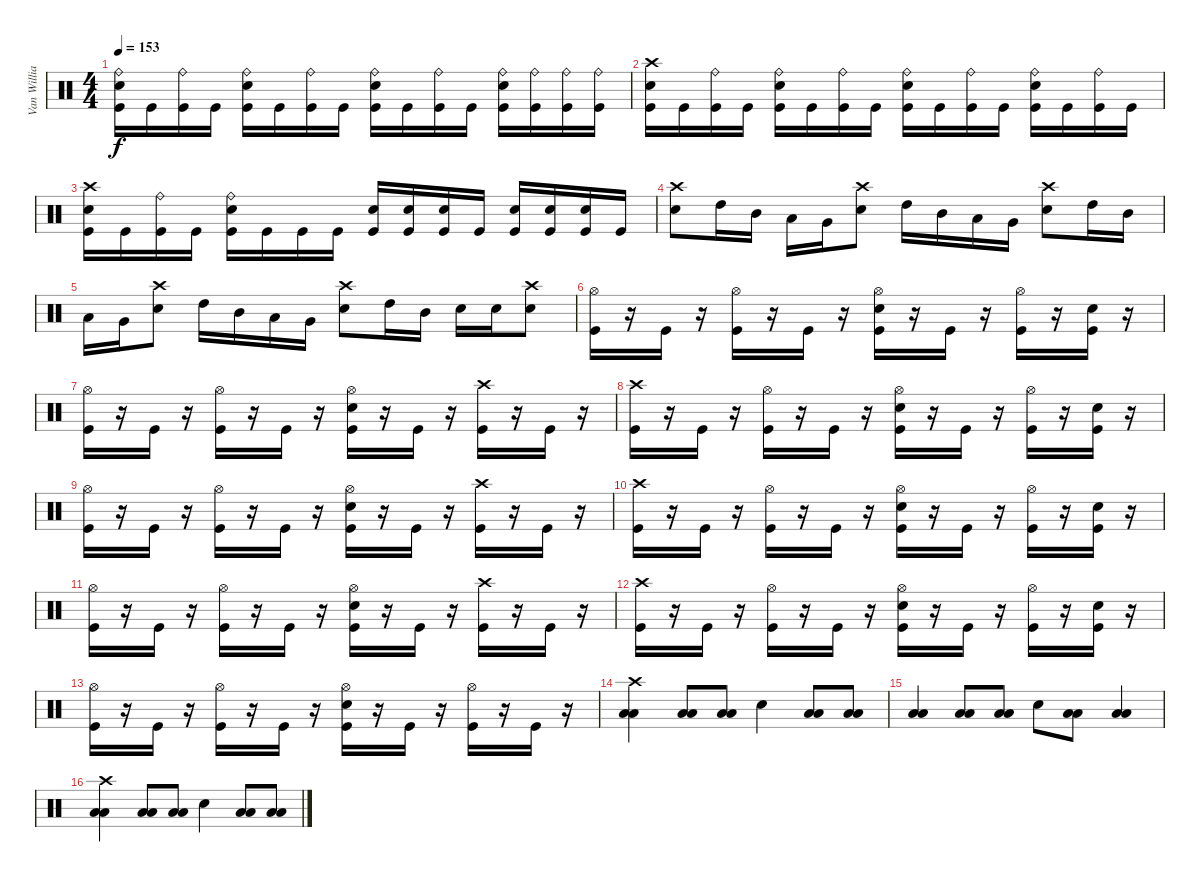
\track ("Van Williams" "Van Willia") {instrument percussion}
\staff {score}
\articulation defaults
\ts (4 4)
\tempo 153
\clef neutral
\ks c
("Ride (bell)" "Electric Snare (hit)" "Kick (hit)").16{dy f} "Kick (hit)".16 ("Ride (bell)" "Kick (hit)").16 "Kick (hit)".16 ("Ride (bell)" "Electric Snare (hit)" "Kick (hit)").16 "Kick (hit)".16 ("Ride (bell)" "Kick (hit)").16 "Kick (hit)".16 ("Ride (bell)" "Electric Snare (hit)" "Kick (hit)").16 "Kick (hit)".16 ("Ride (bell)" "Kick (hit)").16 "Kick (hit)".16 ("Ride (bell)" "Electric Snare (hit)" "Kick (hit)").16 ("Ride (bell)" "Kick (hit)").16 ("Ride (bell)" "Kick (hit)").16 ("Ride (bell)" "Kick (hit)").16 |
("Crash high (hit)" "Electric Snare (hit)" "Kick (hit)").16 "Kick (hit)".16 ("Ride (bell)" "Kick (hit)").16 "Kick (hit)".16 ("Ride (bell)" "Electric Snare (hit)" "Kick (hit)").16 "Kick (hit)".16 ("Ride (bell)" "Kick (hit)").16 "Kick (hit)".16 ("Ride (bell)" "Electric Snare (hit)" "Kick (hit)").16 "Kick (hit)".16 ("Ride (bell)" "Kick (hit)").16 "Kick (hit)".16 ("Ride (bell)" "Electric Snare (hit)" "Kick (hit)").16 "Kick (hit)".16 ("Ride (bell)" "Kick (hit)").16 "Kick (hit)".16 |
("Crash high (hit)" "Electric Snare (hit)" "Kick (hit)").16 "Kick (hit)".16 ("Ride (bell)" "Kick (hit)").16 "Kick (hit)".16 ("Ride (bell)" "Electric Snare (hit)" "Kick (hit)").16 "Kick (hit)".16 "Kick (hit)".16 "Kick (hit)".16 ("Electric Snare (hit)" "Kick (hit)").16 ("Electric Snare (hit)" "Kick (hit)").16 ("Electric Snare (hit)" "Kick (hit)").16 "Kick (hit)".16 ("Electric Snare (hit)" "Kick (hit)").16 ("Electric Snare (hit)" "Kick (hit)").16 ("Electric Snare (hit)" "Kick (hit)").16 "Kick (hit)".16 |
("Crash high (hit)" "Electric Snare (hit)").8 "High Tom (hit)".16 "Mid Tom (hit)".16 "Low Tom (hit)".16 "Very Low Tom (hit)".16 ("Crash high (hit)" "Electric Snare (hit)").8 "High Tom (hit)".16 "Mid Tom (hit)".16 "Low Tom (hit)".16 "Very Low Tom (hit)".16 ("Crash high (hit)" "Electric Snare (hit)").8 "High Tom (hit)".16 "Mid Tom (hit)".16 |
"Low Tom (hit)".16 "Very Low Tom (hit)".16 ("Crash high (hit)" "Electric Snare (hit)").8 "High Tom (hit)".16 "Mid Tom (hit)".16 "Low Tom (hit)".16 "Very Low Tom (hit)".16 ("Crash high (hit)" "Electric Snare (hit)").8 "High Tom (hit)".16 "Mid Tom (hit)".16 "Electric Snare (hit)".16 "Electric Snare (hit)".16 ("Crash high (hit)" "Electric Snare (hit)").8 |
("Hi-Hat (open)" "Kick (hit)").16 r.16 "Kick (hit)".16 r.16 ("Hi-Hat (open)" "Kick (hit)").16 r.16 "Kick (hit)".16 r.16 ("Hi-Hat (open)" "Electric Snare (hit)" "Kick (hit)").16 r.16 "Kick (hit)".16 r.16 ("Hi-Hat (open)" "Kick (hit)").16 r.16 ("Electric Snare (hit)" "Kick (hit)").16 r.16 |
("Hi-Hat (open)" "Kick (hit)").16 r.16 "Kick (hit)".16 r.16 ("Hi-Hat (open)" "Kick (hit)").16 r.16 "Kick (hit)".16 r.16 ("Hi-Hat (open)" "Electric Snare (hit)" "Kick (hit)").16 r.16 "Kick (hit)".16 r.16 ("Crash high (hit)" "Kick (hit)").16 r.16 "Kick (hit)".16 r.16 |
("Crash high (hit)" "Kick (hit)").16 r.16 "Kick (hit)".16 r.16 ("Hi-Hat (open)" "Kick (hit)").16 r.16 "Kick (hit)".16 r.16 ("Hi-Hat (open)" "Electric Snare (hit)" "Kick (hit)").16 r.16 "Kick (hit)".16 r.16 ("Hi-Hat (open)" "Kick (hit)").16 r.16 ("Electric Snare (hit)" "Kick (hit)").16 r.16 |
("Hi-Hat (open)" "Kick (hit)").16 r.16 "Kick (hit)".16 r.16 ("Hi-Hat (open)" "Kick (hit)").16 r.16 "Kick (hit)".16 r.16 ("Hi-Hat (open)" "Electric Snare (hit)" "Kick (hit)").16 r.16 "Kick (hit)".16 r.16 ("Crash high (hit)" "Kick (hit)").16 r.16 "Kick (hit)".16 r.16 |
("Crash high (hit)" "Kick (hit)").16 r.16 "Kick (hit)".16 r.16 ("Hi-Hat (open)" "Kick (hit)").16 r.16 "Kick (hit)".16 r.16 ("Hi-Hat (open)" "Electric Snare (hit)" "Kick (hit)").16 r.16 "Kick (hit)".16 r.16 ("Hi-Hat (open)" "Kick (hit)").16 r.16 ("Electric Snare (hit)" "Kick (hit)").16 r.16 |
("Hi-Hat (open)" "Kick (hit)").16 r.16 "Kick (hit)".16 r.16 ("Hi-Hat (open)" "Kick (hit)").16 r.16 "Kick (hit)".16 r.16 ("Hi-Hat (open)" "Electric Snare (hit)" "Kick (hit)").16 r.16 "Kick (hit)".16 r.16 ("Crash high (hit)" "Kick (hit)").16 r.16 "Kick (hit)".16 r.16 |
("Crash high (hit)" "Kick (hit)").16 r.16 "Kick (hit)".16 r.16 ("Hi-Hat (open)" "Kick (hit)").16 r.16 "Kick (hit)".16 r.16 ("Hi-Hat (open)" "Electric Snare (hit)" "Kick (hit)").16 r.16 "Kick (hit)".16 r.16 ("Hi-Hat (open)" "Kick (hit)").16 r.16 ("Electric Snare (hit)" "Kick (hit)").16 r.16 |
("Hi-Hat (open)" "Kick (hit)").16 r.16 "Kick (hit)".16 r.16 ("Hi-Hat (open)" "Kick (hit)").16 r.16 "Kick (hit)".16 r.16 ("Hi-Hat (open)" "Electric Snare (hit)" "Kick (hit)").16 r.16 "Kick (hit)".16 r.16 ("Hi-Hat (open)" "Kick (hit)").16 r.16 "Kick (hit)".16 r.16 |
("Crash high (hit)" "Low Floor Tom (hit)" "Low Floor Tom (hit)").4 ("Low Floor Tom (hit)" "Low Floor Tom (hit)").8 ("Low Floor Tom (hit)" "Low Floor Tom (hit)").8 "Electric Snare (hit)".4 ("Low Floor Tom (hit)" "Low Floor Tom (hit)").8 ("Low Floor Tom (hit)" "Low Floor Tom (hit)").8 |
("Low Floor Tom (hit)" "Low Floor Tom (hit)").4 ("Low Floor Tom (hit)" "Low Floor Tom (hit)").8 ("Low Floor Tom (hit)" "Low Floor Tom (hit)").8 "Electric Snare (hit)".8 ("Low Floor Tom (hit)" "Low Floor Tom (hit)").8 ("Low Floor Tom (hit)" "Low Floor Tom (hit)").4 |
("Crash high (hit)" "Low Floor Tom (hit)" "Low Floor Tom (hit)").4 ("Low Floor Tom (hit)" "Low Floor Tom (hit)").8 ("Low Floor Tom (hit)" "Low Floor Tom (hit)").8 "Electric Snare (hit)".4 ("Low Floor Tom (hit)" "Low Floor Tom (hit)").8 ("Low Floor Tom (hit)" "Low Floor Tom (hit)").8
